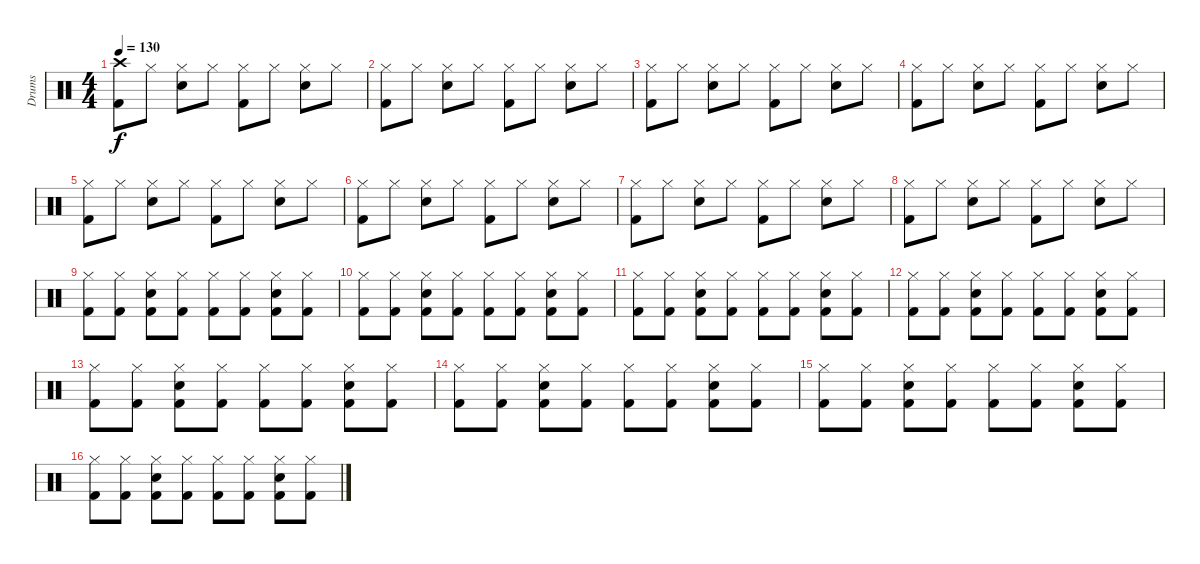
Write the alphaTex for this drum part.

\track ("Drums" "Drums") {instrument percussion}
\staff {score}
\articulation defaults
\ts (4 4)
\tempo 130
\clef neutral
\ks c
("Crash high (hit)" "Kick (hit) 2").8{dy f} "Hi-Hat (closed)".8 ("Hi-Hat (closed)" "Snare (hit) 2").8 "Hi-Hat (closed)".8 ("Hi-Hat (closed)" "Kick (hit) 2").8 "Hi-Hat (closed)".8 ("Hi-Hat (closed)" "Snare (hit) 2").8 "Hi-Hat (closed)".8 |
("Hi-Hat (closed)" "Kick (hit) 2").8 "Hi-Hat (closed)".8 ("Hi-Hat (closed)" "Snare (hit) 2").8 "Hi-Hat (closed)".8 ("Hi-Hat (closed)" "Kick (hit) 2").8 "Hi-Hat (closed)".8 ("Hi-Hat (closed)" "Snare (hit) 2").8 "Hi-Hat (closed)".8 |
("Hi-Hat (closed)" "Kick (hit) 2").8 "Hi-Hat (closed)".8 ("Hi-Hat (closed)" "Snare (hit) 2").8 "Hi-Hat (closed)".8 ("Hi-Hat (closed)" "Kick (hit) 2").8 "Hi-Hat (closed)".8 ("Hi-Hat (closed)" "Snare (hit) 2").8 "Hi-Hat (closed)".8 |
("Hi-Hat (closed)" "Kick (hit) 2").8 "Hi-Hat (closed)".8 ("Hi-Hat (closed)" "Snare (hit) 2").8 "Hi-Hat (closed)".8 ("Hi-Hat (closed)" "Kick (hit) 2").8 "Hi-Hat (closed)".8 ("Hi-Hat (closed)" "Snare (hit) 2").8 "Hi-Hat (closed)".8 |
("Hi-Hat (closed)" "Kick (hit) 2").8 "Hi-Hat (closed)".8 ("Hi-Hat (closed)" "Snare (hit) 2").8 "Hi-Hat (closed)".8 ("Hi-Hat (closed)" "Kick (hit) 2").8 "Hi-Hat (closed)".8 ("Hi-Hat (closed)" "Snare (hit) 2").8 "Hi-Hat (closed)".8 |
("Hi-Hat (closed)" "Kick (hit) 2").8 "Hi-Hat (closed)".8 ("Hi-Hat (closed)" "Snare (hit) 2").8 "Hi-Hat (closed)".8 ("Hi-Hat (closed)" "Kick (hit) 2").8 "Hi-Hat (closed)".8 ("Hi-Hat (closed)" "Snare (hit) 2").8 "Hi-Hat (closed)".8 |
("Hi-Hat (closed)" "Kick (hit) 2").8 "Hi-Hat (closed)".8 ("Hi-Hat (closed)" "Snare (hit) 2").8 "Hi-Hat (closed)".8 ("Hi-Hat (closed)" "Kick (hit) 2").8 "Hi-Hat (closed)".8 ("Hi-Hat (closed)" "Snare (hit) 2").8 "Hi-Hat (closed)".8 |
("Hi-Hat (closed)" "Kick (hit) 2").8 "Hi-Hat (closed)".8 ("Hi-Hat (closed)" "Snare (hit) 2").8 "Hi-Hat (closed)".8 ("Hi-Hat (closed)" "Kick (hit) 2").8 "Hi-Hat (closed)".8 ("Hi-Hat (closed)" "Snare (hit) 2").8 "Hi-Hat (closed)".8 |
("Hi-Hat (closed)" "Kick (hit) 2").8 ("Hi-Hat (closed)" "Kick (hit) 2").8 ("Hi-Hat (closed)" "Snare (hit) 2" "Kick (hit) 2").8 ("Hi-Hat (closed)" "Kick (hit) 2").8 ("Hi-Hat (closed)" "Kick (hit) 2").8 ("Hi-Hat (closed)" "Kick (hit) 2").8 ("Hi-Hat (closed)" "Snare (hit) 2" "Kick (hit) 2").8 ("Hi-Hat (closed)" "Kick (hit) 2").8 |
("Hi-Hat (closed)" "Kick (hit) 2").8 ("Hi-Hat (closed)" "Kick (hit) 2").8 ("Hi-Hat (closed)" "Snare (hit) 2" "Kick (hit) 2").8 ("Hi-Hat (closed)" "Kick (hit) 2").8 ("Hi-Hat (closed)" "Kick (hit) 2").8 ("Hi-Hat (closed)" "Kick (hit) 2").8 ("Hi-Hat (closed)" "Snare (hit) 2" "Kick (hit) 2").8 ("Hi-Hat (closed)" "Kick (hit) 2").8 |
("Hi-Hat (closed)" "Kick (hit) 2").8 ("Hi-Hat (closed)" "Kick (hit) 2").8 ("Hi-Hat (closed)" "Snare (hit) 2" "Kick (hit) 2").8 ("Hi-Hat (closed)" "Kick (hit) 2").8 ("Hi-Hat (closed)" "Kick (hit) 2").8 ("Hi-Hat (closed)" "Kick (hit) 2").8 ("Hi-Hat (closed)" "Snare (hit) 2" "Kick (hit) 2").8 ("Hi-Hat (closed)" "Kick (hit) 2").8 |
("Hi-Hat (closed)" "Kick (hit) 2").8 ("Hi-Hat (closed)" "Kick (hit) 2").8 ("Hi-Hat (closed)" "Snare (hit) 2" "Kick (hit) 2").8 ("Hi-Hat (closed)" "Kick (hit) 2").8 ("Hi-Hat (closed)" "Kick (hit) 2").8 ("Hi-Hat (closed)" "Kick (hit) 2").8 ("Hi-Hat (closed)" "Snare (hit) 2" "Kick (hit) 2").8 ("Hi-Hat (closed)" "Kick (hit) 2").8 |
("Hi-Hat (closed)" "Kick (hit) 2").8 ("Hi-Hat (closed)" "Kick (hit) 2").8 ("Hi-Hat (closed)" "Snare (hit) 2" "Kick (hit) 2").8 ("Hi-Hat (closed)" "Kick (hit) 2").8 ("Hi-Hat (closed)" "Kick (hit) 2").8 ("Hi-Hat (closed)" "Kick (hit) 2").8 ("Hi-Hat (closed)" "Snare (hit) 2" "Kick (hit) 2").8 ("Hi-Hat (closed)" "Kick (hit) 2").8 |
("Hi-Hat (closed)" "Kick (hit) 2").8 ("Hi-Hat (closed)" "Kick (hit) 2").8 ("Hi-Hat (closed)" "Snare (hit) 2" "Kick (hit) 2").8 ("Hi-Hat (closed)" "Kick (hit) 2").8 ("Hi-Hat (closed)" "Kick (hit) 2").8 ("Hi-Hat (closed)" "Kick (hit) 2").8 ("Hi-Hat (closed)" "Snare (hit) 2" "Kick (hit) 2").8 ("Hi-Hat (closed)" "Kick (hit) 2").8 |
("Hi-Hat (closed)" "Kick (hit) 2").8 ("Hi-Hat (closed)" "Kick (hit) 2").8 ("Hi-Hat (closed)" "Snare (hit) 2" "Kick (hit) 2").8 ("Hi-Hat (closed)" "Kick (hit) 2").8 ("Hi-Hat (closed)" "Kick (hit) 2").8 ("Hi-Hat (closed)" "Kick (hit) 2").8 ("Hi-Hat (closed)" "Snare (hit) 2" "Kick (hit) 2").8 ("Hi-Hat (closed)" "Kick (hit) 2").8 |
("Hi-Hat (closed)" "Kick (hit) 2").8 ("Hi-Hat (closed)" "Kick (hit) 2").8 ("Hi-Hat (closed)" "Snare (hit) 2" "Kick (hit) 2").8 ("Hi-Hat (closed)" "Kick (hit) 2").8 ("Hi-Hat (closed)" "Kick (hit) 2").8 ("Hi-Hat (closed)" "Kick (hit) 2").8 ("Hi-Hat (closed)" "Snare (hit) 2" "Kick (hit) 2").8 ("Hi-Hat (closed)" "Kick (hit) 2").8
